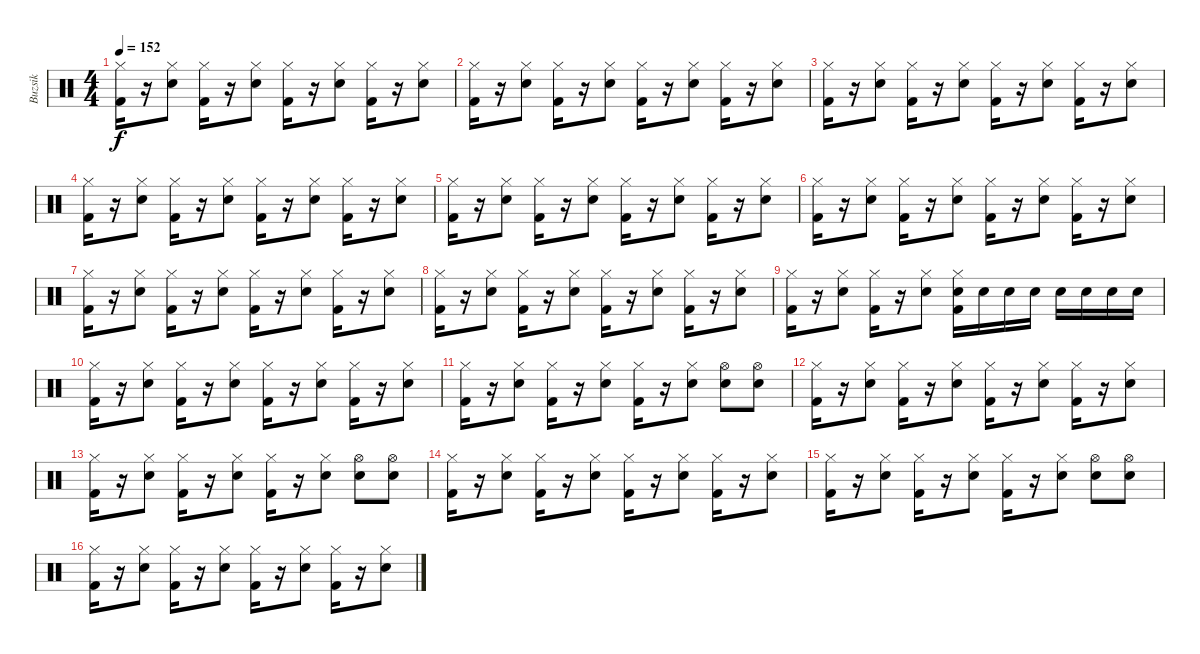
\track ("Buzsik" "Buzsik") {instrument percussion}
\staff {score}
\articulation defaults
\ts (4 4)
\tempo 152
\clef neutral
\ks c
("Hi-Hat (closed)" "Kick (hit) 2").16{dy f} r.16 ("Hi-Hat (closed)" "Electric Snare (hit)").8 ("Hi-Hat (closed)" "Kick (hit) 2").16 r.16 ("Hi-Hat (closed)" "Electric Snare (hit)").8 ("Hi-Hat (closed)" "Kick (hit) 2").16 r.16 ("Hi-Hat (closed)" "Electric Snare (hit)").8 ("Hi-Hat (closed)" "Kick (hit) 2").16 r.16 ("Hi-Hat (closed)" "Electric Snare (hit)").8 |
("Hi-Hat (closed)" "Kick (hit) 2").16 r.16 ("Hi-Hat (closed)" "Electric Snare (hit)").8 ("Hi-Hat (closed)" "Kick (hit) 2").16 r.16 ("Hi-Hat (closed)" "Electric Snare (hit)").8 ("Hi-Hat (closed)" "Kick (hit) 2").16 r.16 ("Hi-Hat (closed)" "Electric Snare (hit)").8 ("Hi-Hat (closed)" "Kick (hit) 2").16 r.16 ("Hi-Hat (closed)" "Electric Snare (hit)").8 |
("Hi-Hat (closed)" "Kick (hit) 2").16 r.16 ("Hi-Hat (closed)" "Electric Snare (hit)").8 ("Hi-Hat (closed)" "Kick (hit) 2").16 r.16 ("Hi-Hat (closed)" "Electric Snare (hit)").8 ("Hi-Hat (closed)" "Kick (hit) 2").16 r.16 ("Hi-Hat (closed)" "Electric Snare (hit)").8 ("Hi-Hat (closed)" "Kick (hit) 2").16 r.16 ("Hi-Hat (closed)" "Electric Snare (hit)").8 |
("Hi-Hat (closed)" "Kick (hit) 2").16 r.16 ("Hi-Hat (closed)" "Electric Snare (hit)").8 ("Hi-Hat (closed)" "Kick (hit) 2").16 r.16 ("Hi-Hat (closed)" "Electric Snare (hit)").8 ("Hi-Hat (closed)" "Kick (hit) 2").16 r.16 ("Hi-Hat (closed)" "Electric Snare (hit)").8 ("Hi-Hat (closed)" "Kick (hit) 2").16 r.16 ("Hi-Hat (closed)" "Electric Snare (hit)").8 |
("Hi-Hat (closed)" "Kick (hit) 2").16 r.16 ("Hi-Hat (closed)" "Electric Snare (hit)").8 ("Hi-Hat (closed)" "Kick (hit) 2").16 r.16 ("Hi-Hat (closed)" "Electric Snare (hit)").8 ("Hi-Hat (closed)" "Kick (hit) 2").16 r.16 ("Hi-Hat (closed)" "Electric Snare (hit)").8 ("Hi-Hat (closed)" "Kick (hit) 2").16 r.16 ("Hi-Hat (closed)" "Electric Snare (hit)").8 |
("Hi-Hat (closed)" "Kick (hit) 2").16 r.16 ("Hi-Hat (closed)" "Electric Snare (hit)").8 ("Hi-Hat (closed)" "Kick (hit) 2").16 r.16 ("Hi-Hat (closed)" "Electric Snare (hit)").8 ("Hi-Hat (closed)" "Kick (hit) 2").16 r.16 ("Hi-Hat (closed)" "Electric Snare (hit)").8 ("Hi-Hat (closed)" "Kick (hit) 2").16 r.16 ("Hi-Hat (closed)" "Electric Snare (hit)").8 |
("Hi-Hat (closed)" "Kick (hit) 2").16 r.16 ("Hi-Hat (closed)" "Electric Snare (hit)").8 ("Hi-Hat (closed)" "Kick (hit) 2").16 r.16 ("Hi-Hat (closed)" "Electric Snare (hit)").8 ("Hi-Hat (closed)" "Kick (hit) 2").16 r.16 ("Hi-Hat (closed)" "Electric Snare (hit)").8 ("Hi-Hat (closed)" "Kick (hit) 2").16 r.16 ("Hi-Hat (closed)" "Electric Snare (hit)").8 |
("Hi-Hat (closed)" "Kick (hit) 2").16 r.16 ("Hi-Hat (closed)" "Electric Snare (hit)").8 ("Hi-Hat (closed)" "Kick (hit) 2").16 r.16 ("Hi-Hat (closed)" "Electric Snare (hit)").8 ("Hi-Hat (closed)" "Kick (hit) 2").16 r.16 ("Hi-Hat (closed)" "Electric Snare (hit)").8 ("Hi-Hat (closed)" "Kick (hit) 2").16 r.16 ("Hi-Hat (closed)" "Electric Snare (hit)").8 |
("Hi-Hat (closed)" "Kick (hit) 2").16 r.16 ("Hi-Hat (closed)" "Electric Snare (hit)").8 ("Hi-Hat (closed)" "Kick (hit) 2").16 r.16 ("Hi-Hat (closed)" "Electric Snare (hit)").8 ("Hi-Hat (closed)" "Kick (hit) 2" "Electric Snare (hit)").16 "Electric Snare (hit)".16 "Electric Snare (hit)".16 "Electric Snare (hit)".16 "Electric Snare (hit)".16 "Electric Snare (hit)".16 "Electric Snare (hit)".16 "Electric Snare (hit)".16 |
("Hi-Hat (closed)" "Kick (hit) 2").16 r.16 ("Hi-Hat (closed)" "Electric Snare (hit)").8 ("Hi-Hat (closed)" "Kick (hit) 2").16 r.16 ("Hi-Hat (closed)" "Electric Snare (hit)").8 ("Hi-Hat (closed)" "Kick (hit) 2").16 r.16 ("Hi-Hat (closed)" "Electric Snare (hit)").8 ("Hi-Hat (closed)" "Kick (hit) 2").16 r.16 ("Hi-Hat (closed)" "Electric Snare (hit)").8 |
("Hi-Hat (closed)" "Kick (hit) 2").16 r.16 ("Hi-Hat (closed)" "Electric Snare (hit)").8 ("Hi-Hat (closed)" "Kick (hit) 2").16 r.16 ("Hi-Hat (closed)" "Electric Snare (hit)").8 ("Hi-Hat (closed)" "Kick (hit) 2").16 r.16 ("Hi-Hat (closed)" "Electric Snare (hit)").8 ("Hi-Hat (open)" "Electric Snare (hit)").8 ("Hi-Hat (open)" "Electric Snare (hit)").8 |
("Hi-Hat (closed)" "Kick (hit) 2").16 r.16 ("Hi-Hat (closed)" "Electric Snare (hit)").8 ("Hi-Hat (closed)" "Kick (hit) 2").16 r.16 ("Hi-Hat (closed)" "Electric Snare (hit)").8 ("Hi-Hat (closed)" "Kick (hit) 2").16 r.16 ("Hi-Hat (closed)" "Electric Snare (hit)").8 ("Hi-Hat (closed)" "Kick (hit) 2").16 r.16 ("Hi-Hat (closed)" "Electric Snare (hit)").8 |
("Hi-Hat (closed)" "Kick (hit) 2").16 r.16 ("Hi-Hat (closed)" "Electric Snare (hit)").8 ("Hi-Hat (closed)" "Kick (hit) 2").16 r.16 ("Hi-Hat (closed)" "Electric Snare (hit)").8 ("Hi-Hat (closed)" "Kick (hit) 2").16 r.16 ("Hi-Hat (closed)" "Electric Snare (hit)").8 ("Hi-Hat (open)" "Electric Snare (hit)").8 ("Hi-Hat (open)" "Electric Snare (hit)").8 |
("Hi-Hat (closed)" "Kick (hit) 2").16 r.16 ("Hi-Hat (closed)" "Electric Snare (hit)").8 ("Hi-Hat (closed)" "Kick (hit) 2").16 r.16 ("Hi-Hat (closed)" "Electric Snare (hit)").8 ("Hi-Hat (closed)" "Kick (hit) 2").16 r.16 ("Hi-Hat (closed)" "Electric Snare (hit)").8 ("Hi-Hat (closed)" "Kick (hit) 2").16 r.16 ("Hi-Hat (closed)" "Electric Snare (hit)").8 |
("Hi-Hat (closed)" "Kick (hit) 2").16 r.16 ("Hi-Hat (closed)" "Electric Snare (hit)").8 ("Hi-Hat (closed)" "Kick (hit) 2").16 r.16 ("Hi-Hat (closed)" "Electric Snare (hit)").8 ("Hi-Hat (closed)" "Kick (hit) 2").16 r.16 ("Hi-Hat (closed)" "Electric Snare (hit)").8 ("Hi-Hat (open)" "Electric Snare (hit)").8 ("Hi-Hat (open)" "Electric Snare (hit)").8 |
("Hi-Hat (closed)" "Kick (hit) 2").16 r.16 ("Hi-Hat (closed)" "Electric Snare (hit)").8 ("Hi-Hat (closed)" "Kick (hit) 2").16 r.16 ("Hi-Hat (closed)" "Electric Snare (hit)").8 ("Hi-Hat (closed)" "Kick (hit) 2").16 r.16 ("Hi-Hat (closed)" "Electric Snare (hit)").8 ("Hi-Hat (closed)" "Kick (hit) 2").16 r.16 ("Hi-Hat (closed)" "Electric Snare (hit)").8
